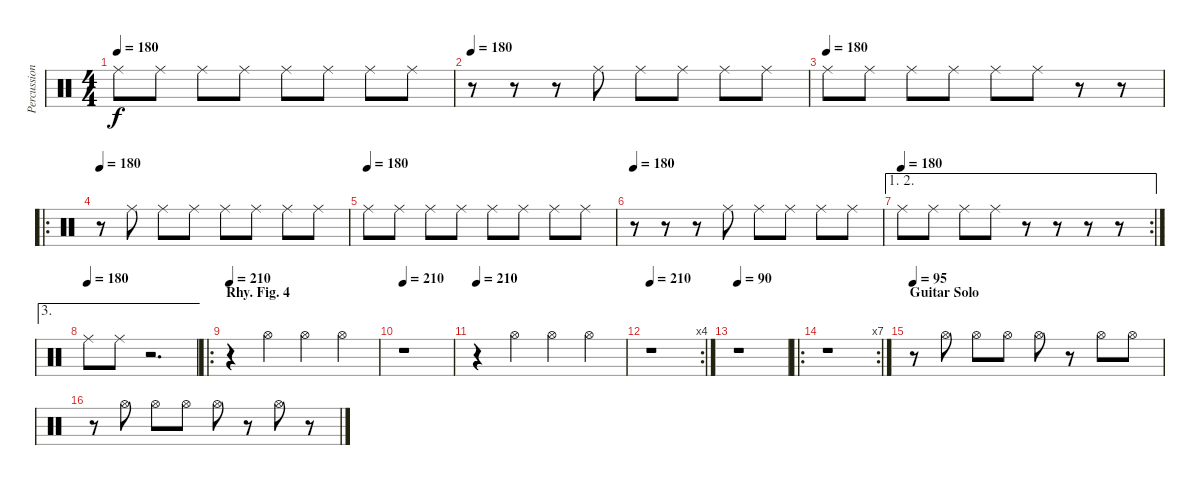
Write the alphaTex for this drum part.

\track ("Percussion" "Percussion") {instrument percussion}
\staff {score}
\articulation defaults
\ts (4 4)
\tempo 180
\clef neutral
\ks c "Ride (middle)".8{dy f} "Ride (middle)".8 "Ride (middle)".8 "Ride (middle)".8 "Ride (middle)".8 "Ride (middle)".8 "Ride (middle)".8 "Ride (middle)".8
|
\tempo 180
r.8 r.8 r.8 "Ride (middle)".8 "Ride (middle)".8 "Ride (middle)".8 "Ride (middle)".8 "Ride (middle)".8 |
\tempo (180)
"Ride (middle)".8 "Ride (middle)".8 "Ride (middle)".8 "Ride (middle)".8 "Ride (middle)".8 "Ride (middle)".8 r.8 r.8 |
\ro
\tempo 180
r.8 "Ride (middle)".8 "Ride (middle)".8 "Ride (middle)".8 "Ride (middle)".8 "Ride (middle)".8 "Ride (middle)".8 "Ride (middle)".8 |
\tempo (180)
"Ride (middle)".8 "Ride (middle)".8 "Ride (middle)".8 "Ride (middle)".8 "Ride (middle)".8 "Ride (middle)".8 "Ride (middle)".8 "Ride (middle)".8 |
\tempo 180
r.8 r.8 r.8 "Ride (middle)".8 "Ride (middle)".8 "Ride (middle)".8 "Ride (middle)".8 "Ride (middle)".8 |
\ae (1 2)
\rc 2
\tempo (180)
"Ride (middle)".8 "Ride (middle)".8 "Ride (middle)".8 "Ride (middle)".8 r.8 r.8 r.8 r.8 |
\ae 3
\tempo (180)
"Ride (middle)".8 "Ride (middle)".8 r.2{d} |
\ro
\section ("" "Rhy. Fig. 4")
\tempo 210
r.4 "Hi-Hat (open)".4 "Hi-Hat (open)".4 "Hi-Hat (open)".4 |
\tempo 210
r.1 |
\tempo 210
r.4 "Hi-Hat (open)".4 "Hi-Hat (open)".4 "Hi-Hat (open)".4 |
\rc 4
\tempo 210
r.1 |
\tempo 90
r.1 |
\ro
\rc 7
r.1 |
\section ("" "Guitar Solo")
\tempo 95
r.8 "Hi-Hat (open)".8 "Hi-Hat (open)".8 "Hi-Hat (open)".8 "Hi-Hat (open)".8 r.8 "Hi-Hat (open)".8 "Hi-Hat (open)".8 |
r.8 "Hi-Hat (open)".8 "Hi-Hat (open)".8 "Hi-Hat (open)".8 "Hi-Hat (open)".8 r.8 "Hi-Hat (open)".8 r.8
